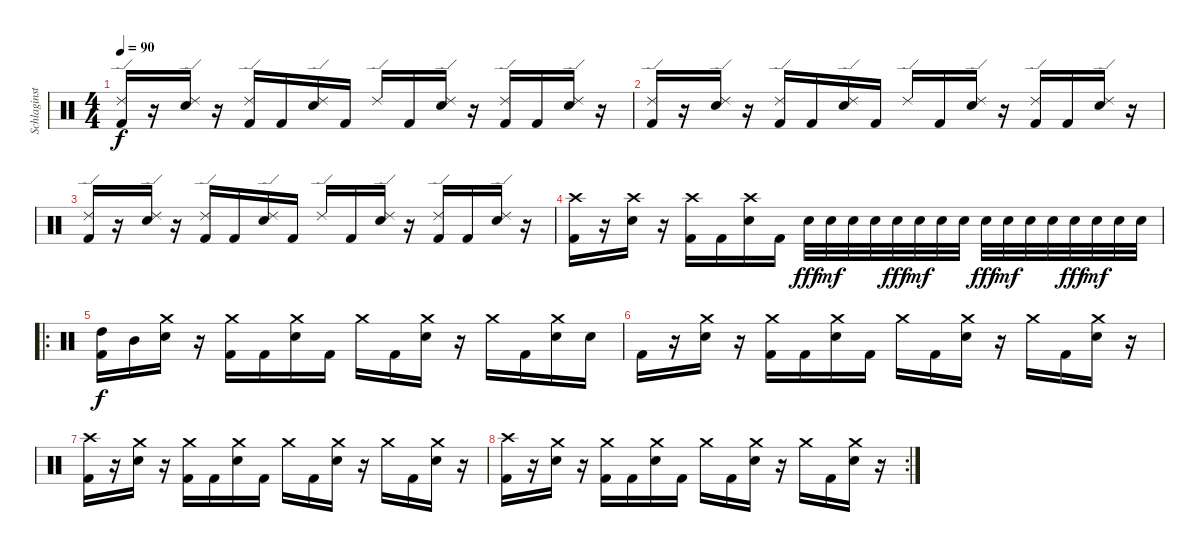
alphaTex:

\track ("Schlaginstrumente - Auswahl" "Schlaginst") {instrument percussion}
\staff {score}
\articulation defaults
\ts (4 4)
\tempo 90
\clef neutral
\ks c
("Ride (edge) 2" "Kick (hit) 2").16{dy f} r.16 ("Ride (edge) 2" "Electric Snare (hit)").16 r.16 ("Ride (edge) 2" "Kick (hit) 2").16 "Kick (hit) 2".16 ("Ride (edge) 2" "Electric Snare (hit)").16 "Kick (hit) 2".16 "Ride (edge) 2".16 "Kick (hit) 2".16 ("Ride (edge) 2" "Electric Snare (hit)").16 r.16 ("Ride (edge) 2" "Kick (hit) 2").16 "Kick (hit) 2".16 ("Ride (edge) 2" "Electric Snare (hit)").16 r.16 |
("Ride (edge) 2" "Kick (hit) 2").16 r.16 ("Ride (edge) 2" "Electric Snare (hit)").16 r.16 ("Ride (edge) 2" "Kick (hit) 2").16 "Kick (hit) 2".16 ("Ride (edge) 2" "Electric Snare (hit)").16 "Kick (hit) 2".16 "Ride (edge) 2".16 "Kick (hit) 2".16 ("Ride (edge) 2" "Electric Snare (hit)").16 r.16 ("Ride (edge) 2" "Kick (hit) 2").16 "Kick (hit) 2".16 ("Ride (edge) 2" "Electric Snare (hit)").16 r.16 |
("Ride (edge) 2" "Kick (hit) 2").16 r.16 ("Ride (edge) 2" "Electric Snare (hit)").16 r.16 ("Ride (edge) 2" "Kick (hit) 2").16 "Kick (hit) 2".16 ("Ride (edge) 2" "Electric Snare (hit)").16 "Kick (hit) 2".16 "Ride (edge) 2".16 "Kick (hit) 2".16 ("Ride (edge) 2" "Electric Snare (hit)").16 r.16 ("Ride (edge) 2" "Kick (hit) 2").16 "Kick (hit) 2".16 ("Ride (edge) 2" "Electric Snare (hit)").16 r.16 |
("Crash high (hit)" "Kick (hit) 2").16 r.16 ("Crash high (hit)" "Electric Snare (hit)").16 r.16 ("Crash high (hit)" "Kick (hit) 2").16 "Kick (hit) 2".16 ("Crash high (hit)" "Electric Snare (hit)").16 "Kick (hit) 2".16 "Electric Snare (hit)".32{dy fff} "Electric Snare (hit)".32{dy mf} "Electric Snare (hit)".32 "Electric Snare (hit)".32 "Electric Snare (hit)".32{dy fff} "Electric Snare (hit)".32{dy mf} "Electric Snare (hit)".32 "Electric Snare (hit)".32 "Electric Snare (hit)".32{dy fff} "Electric Snare (hit)".32{dy mf} "Electric Snare (hit)".32 "Electric Snare (hit)".32 "Electric Snare (hit)".32{dy fff} "Electric Snare (hit)".32{dy mf} "Electric Snare (hit)".32 "Electric Snare (hit)".32 |
\ro
("High Tom (hit)" "Kick (hit) 2").16{dy f} "Mid Tom (hit)".16 ("Crash medium (hit)" "Electric Snare (hit)").16 r.16 ("Crash medium (hit)" "Kick (hit) 2").16 "Kick (hit) 2".16 ("Crash medium (hit)" "Electric Snare (hit)").16 "Kick (hit) 2".16 "Crash medium (hit)".16 "Kick (hit) 2".16 ("Crash medium (hit)" "Electric Snare (hit)").16 r.16 "Crash medium (hit)".16 "Kick (hit) 2".16 ("Crash medium (hit)" "Electric Snare (hit)").16 "Electric Snare (hit)".16 |
"Kick (hit) 2".16 r.16 ("Crash medium (hit)" "Electric Snare (hit)").16 r.16 ("Crash medium (hit)" "Kick (hit) 2").16 "Kick (hit) 2".16 ("Crash medium (hit)" "Electric Snare (hit)").16 "Kick (hit) 2".16 "Crash medium (hit)".16 "Kick (hit) 2".16 ("Crash medium (hit)" "Electric Snare (hit)").16 r.16 "Crash medium (hit)".16 "Kick (hit) 2".16 ("Crash medium (hit)" "Electric Snare (hit)").16 r.16 |
("Crash high (hit)" "Kick (hit) 2").16 r.16 ("Crash medium (hit)" "Electric Snare (hit)").16 r.16 ("Crash medium (hit)" "Kick (hit) 2").16 "Kick (hit) 2".16 ("Crash medium (hit)" "Electric Snare (hit)").16 "Kick (hit) 2".16 "Crash medium (hit)".16 "Kick (hit) 2".16 ("Crash medium (hit)" "Electric Snare (hit)").16 r.16 "Crash medium (hit)".16 "Kick (hit) 2".16 ("Crash medium (hit)" "Electric Snare (hit)").16 r.16 |
\rc 2
("Crash high (hit)" "Kick (hit) 2").16 r.16 ("Crash medium (hit)" "Electric Snare (hit)").16 r.16 ("Crash medium (hit)" "Kick (hit) 2").16 "Kick (hit) 2".16 ("Crash medium (hit)" "Electric Snare (hit)").16 "Kick (hit) 2".16 "Crash medium (hit)".16 "Kick (hit) 2".16 ("Crash medium (hit)" "Electric Snare (hit)").16 r.16 "Crash medium (hit)".16 "Kick (hit) 2".16 ("Crash medium (hit)" "Electric Snare (hit)").16 r.16
